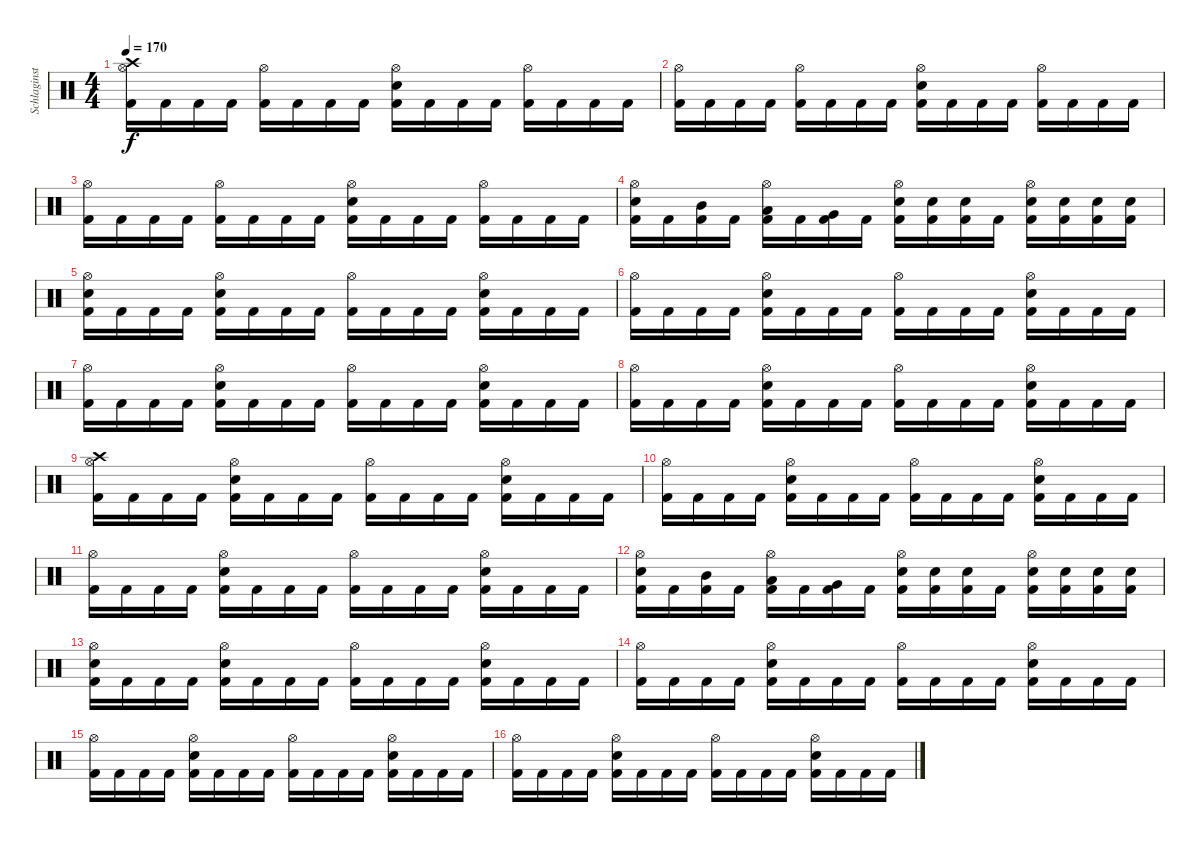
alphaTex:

\track ("Schlaginstrumente - Auswahl" "Schlaginst") {instrument percussion}
\staff {score}
\articulation defaults
\ts (4 4)
\tempo 170
\clef neutral
\ks c
("Crash high (hit)" "Hi-Hat (open)" "Kick (hit) 2").16{dy f} "Kick (hit) 2".16 "Kick (hit) 2".16 "Kick (hit) 2".16 ("Hi-Hat (open)" "Kick (hit) 2").16 "Kick (hit) 2".16 "Kick (hit) 2".16 "Kick (hit) 2".16 ("Hi-Hat (open)" "Snare (hit) 2" "Kick (hit) 2").16 "Kick (hit) 2".16 "Kick (hit) 2".16 "Kick (hit) 2".16 ("Hi-Hat (open)" "Kick (hit) 2").16 "Kick (hit) 2".16 "Kick (hit) 2".16 "Kick (hit) 2".16 |
("Hi-Hat (open)" "Kick (hit) 2").16 "Kick (hit) 2".16 "Kick (hit) 2".16 "Kick (hit) 2".16 ("Hi-Hat (open)" "Kick (hit) 2").16 "Kick (hit) 2".16 "Kick (hit) 2".16 "Kick (hit) 2".16 ("Hi-Hat (open)" "Snare (hit) 2" "Kick (hit) 2").16 "Kick (hit) 2".16 "Kick (hit) 2".16 "Kick (hit) 2".16 ("Hi-Hat (open)" "Kick (hit) 2").16 "Kick (hit) 2".16 "Kick (hit) 2".16 "Kick (hit) 2".16 |
("Hi-Hat (open)" "Kick (hit) 2").16 "Kick (hit) 2".16 "Kick (hit) 2".16 "Kick (hit) 2".16 ("Hi-Hat (open)" "Kick (hit) 2").16 "Kick (hit) 2".16 "Kick (hit) 2".16 "Kick (hit) 2".16 ("Hi-Hat (open)" "Snare (hit) 2" "Kick (hit) 2").16 "Kick (hit) 2".16 "Kick (hit) 2".16 "Kick (hit) 2".16 ("Hi-Hat (open)" "Kick (hit) 2").16 "Kick (hit) 2".16 "Kick (hit) 2".16 "Kick (hit) 2".16 |
("Hi-Hat (open)" "Snare (hit) 2" "Kick (hit) 2").16 "Kick (hit) 2".16 ("Mid Tom (hit)" "Kick (hit) 2").16 "Kick (hit) 2".16 ("Hi-Hat (open)" "Low Tom (hit)" "Kick (hit) 2").16 "Kick (hit) 2".16 ("Very Low Tom (hit)" "Kick (hit) 2").16 "Kick (hit) 2".16 ("Hi-Hat (open)" "Snare (hit) 2" "Kick (hit) 2").16 ("Snare (hit) 2" "Kick (hit) 2").16 ("Snare (hit) 2" "Kick (hit) 2").16 "Kick (hit) 2".16 ("Hi-Hat (open)" "Snare (hit) 2" "Kick (hit) 2").16 ("Snare (hit) 2" "Kick (hit) 2").16 ("Snare (hit) 2" "Kick (hit) 2").16 ("Snare (hit) 2" "Kick (hit) 2").16 |
("Hi-Hat (open)" "Snare (hit) 2" "Kick (hit) 2").16 "Kick (hit) 2".16 "Kick (hit) 2".16 "Kick (hit) 2".16 ("Hi-Hat (open)" "Snare (hit) 2" "Kick (hit) 2").16 "Kick (hit) 2".16 "Kick (hit) 2".16 "Kick (hit) 2".16 ("Hi-Hat (open)" "Kick (hit) 2").16 "Kick (hit) 2".16 "Kick (hit) 2".16 "Kick (hit) 2".16 ("Hi-Hat (open)" "Snare (hit) 2" "Kick (hit) 2").16 "Kick (hit) 2".16 "Kick (hit) 2".16 "Kick (hit) 2".16 |
("Hi-Hat (open)" "Kick (hit) 2").16 "Kick (hit) 2".16 "Kick (hit) 2".16 "Kick (hit) 2".16 ("Hi-Hat (open)" "Snare (hit) 2" "Kick (hit) 2").16 "Kick (hit) 2".16 "Kick (hit) 2".16 "Kick (hit) 2".16 ("Hi-Hat (open)" "Kick (hit) 2").16 "Kick (hit) 2".16 "Kick (hit) 2".16 "Kick (hit) 2".16 ("Hi-Hat (open)" "Snare (hit) 2" "Kick (hit) 2").16 "Kick (hit) 2".16 "Kick (hit) 2".16 "Kick (hit) 2".16 |
("Hi-Hat (open)" "Kick (hit) 2").16 "Kick (hit) 2".16 "Kick (hit) 2".16 "Kick (hit) 2".16 ("Hi-Hat (open)" "Snare (hit) 2" "Kick (hit) 2").16 "Kick (hit) 2".16 "Kick (hit) 2".16 "Kick (hit) 2".16 ("Hi-Hat (open)" "Kick (hit) 2").16 "Kick (hit) 2".16 "Kick (hit) 2".16 "Kick (hit) 2".16 ("Hi-Hat (open)" "Snare (hit) 2" "Kick (hit) 2").16 "Kick (hit) 2".16 "Kick (hit) 2".16 "Kick (hit) 2".16 |
("Hi-Hat (open)" "Kick (hit) 2").16 "Kick (hit) 2".16 "Kick (hit) 2".16 "Kick (hit) 2".16 ("Hi-Hat (open)" "Snare (hit) 2" "Kick (hit) 2").16 "Kick (hit) 2".16 "Kick (hit) 2".16 "Kick (hit) 2".16 ("Hi-Hat (open)" "Kick (hit) 2").16 "Kick (hit) 2".16 "Kick (hit) 2".16 "Kick (hit) 2".16 ("Hi-Hat (open)" "Snare (hit) 2" "Kick (hit) 2").16 "Kick (hit) 2".16 "Kick (hit) 2".16 "Kick (hit) 2".16 |
("Crash high (hit)" "Hi-Hat (open)" "Kick (hit) 2").16 "Kick (hit) 2".16 "Kick (hit) 2".16 "Kick (hit) 2".16 ("Hi-Hat (open)" "Snare (hit) 2" "Kick (hit) 2").16 "Kick (hit) 2".16 "Kick (hit) 2".16 "Kick (hit) 2".16 ("Hi-Hat (open)" "Kick (hit) 2").16 "Kick (hit) 2".16 "Kick (hit) 2".16 "Kick (hit) 2".16 ("Hi-Hat (open)" "Snare (hit) 2" "Kick (hit) 2").16 "Kick (hit) 2".16 "Kick (hit) 2".16 "Kick (hit) 2".16 |
("Hi-Hat (open)" "Kick (hit) 2").16 "Kick (hit) 2".16 "Kick (hit) 2".16 "Kick (hit) 2".16 ("Hi-Hat (open)" "Snare (hit) 2" "Kick (hit) 2").16 "Kick (hit) 2".16 "Kick (hit) 2".16 "Kick (hit) 2".16 ("Hi-Hat (open)" "Kick (hit) 2").16 "Kick (hit) 2".16 "Kick (hit) 2".16 "Kick (hit) 2".16 ("Hi-Hat (open)" "Snare (hit) 2" "Kick (hit) 2").16 "Kick (hit) 2".16 "Kick (hit) 2".16 "Kick (hit) 2".16 |
("Hi-Hat (open)" "Kick (hit) 2").16 "Kick (hit) 2".16 "Kick (hit) 2".16 "Kick (hit) 2".16 ("Hi-Hat (open)" "Snare (hit) 2" "Kick (hit) 2").16 "Kick (hit) 2".16 "Kick (hit) 2".16 "Kick (hit) 2".16 ("Hi-Hat (open)" "Kick (hit) 2").16 "Kick (hit) 2".16 "Kick (hit) 2".16 "Kick (hit) 2".16 ("Hi-Hat (open)" "Snare (hit) 2" "Kick (hit) 2").16 "Kick (hit) 2".16 "Kick (hit) 2".16 "Kick (hit) 2".16 |
("Hi-Hat (open)" "Snare (hit) 2" "Kick (hit) 2").16 "Kick (hit) 2".16 ("Mid Tom (hit)" "Kick (hit) 2").16 "Kick (hit) 2".16 ("Hi-Hat (open)" "Low Tom (hit)" "Kick (hit) 2").16 "Kick (hit) 2".16 ("Very Low Tom (hit)" "Kick (hit) 2").16 "Kick (hit) 2".16 ("Hi-Hat (open)" "Snare (hit) 2" "Kick (hit) 2").16 ("Snare (hit) 2" "Kick (hit) 2").16 ("Snare (hit) 2" "Kick (hit) 2").16 "Kick (hit) 2".16 ("Hi-Hat (open)" "Snare (hit) 2" "Kick (hit) 2").16 ("Snare (hit) 2" "Kick (hit) 2").16 ("Snare (hit) 2" "Kick (hit) 2").16 ("Snare (hit) 2" "Kick (hit) 2").16 |
("Hi-Hat (open)" "Snare (hit) 2" "Kick (hit) 2").16 "Kick (hit) 2".16 "Kick (hit) 2".16 "Kick (hit) 2".16 ("Hi-Hat (open)" "Snare (hit) 2" "Kick (hit) 2").16 "Kick (hit) 2".16 "Kick (hit) 2".16 "Kick (hit) 2".16 ("Hi-Hat (open)" "Kick (hit) 2").16 "Kick (hit) 2".16 "Kick (hit) 2".16 "Kick (hit) 2".16 ("Hi-Hat (open)" "Snare (hit) 2" "Kick (hit) 2").16 "Kick (hit) 2".16 "Kick (hit) 2".16 "Kick (hit) 2".16 |
("Hi-Hat (open)" "Kick (hit) 2").16 "Kick (hit) 2".16 "Kick (hit) 2".16 "Kick (hit) 2".16 ("Hi-Hat (open)" "Snare (hit) 2" "Kick (hit) 2").16 "Kick (hit) 2".16 "Kick (hit) 2".16 "Kick (hit) 2".16 ("Hi-Hat (open)" "Kick (hit) 2").16 "Kick (hit) 2".16 "Kick (hit) 2".16 "Kick (hit) 2".16 ("Hi-Hat (open)" "Snare (hit) 2" "Kick (hit) 2").16 "Kick (hit) 2".16 "Kick (hit) 2".16 "Kick (hit) 2".16 |
("Hi-Hat (open)" "Kick (hit) 2").16 "Kick (hit) 2".16 "Kick (hit) 2".16 "Kick (hit) 2".16 ("Hi-Hat (open)" "Snare (hit) 2" "Kick (hit) 2").16 "Kick (hit) 2".16 "Kick (hit) 2".16 "Kick (hit) 2".16 ("Hi-Hat (open)" "Kick (hit) 2").16 "Kick (hit) 2".16 "Kick (hit) 2".16 "Kick (hit) 2".16 ("Hi-Hat (open)" "Snare (hit) 2" "Kick (hit) 2").16 "Kick (hit) 2".16 "Kick (hit) 2".16 "Kick (hit) 2".16 |
("Hi-Hat (open)" "Kick (hit) 2").16 "Kick (hit) 2".16 "Kick (hit) 2".16 "Kick (hit) 2".16 ("Hi-Hat (open)" "Snare (hit) 2" "Kick (hit) 2").16 "Kick (hit) 2".16 "Kick (hit) 2".16 "Kick (hit) 2".16 ("Hi-Hat (open)" "Kick (hit) 2").16 "Kick (hit) 2".16 "Kick (hit) 2".16 "Kick (hit) 2".16 ("Hi-Hat (open)" "Snare (hit) 2" "Kick (hit) 2").16 "Kick (hit) 2".16 "Kick (hit) 2".16 "Kick (hit) 2".16
